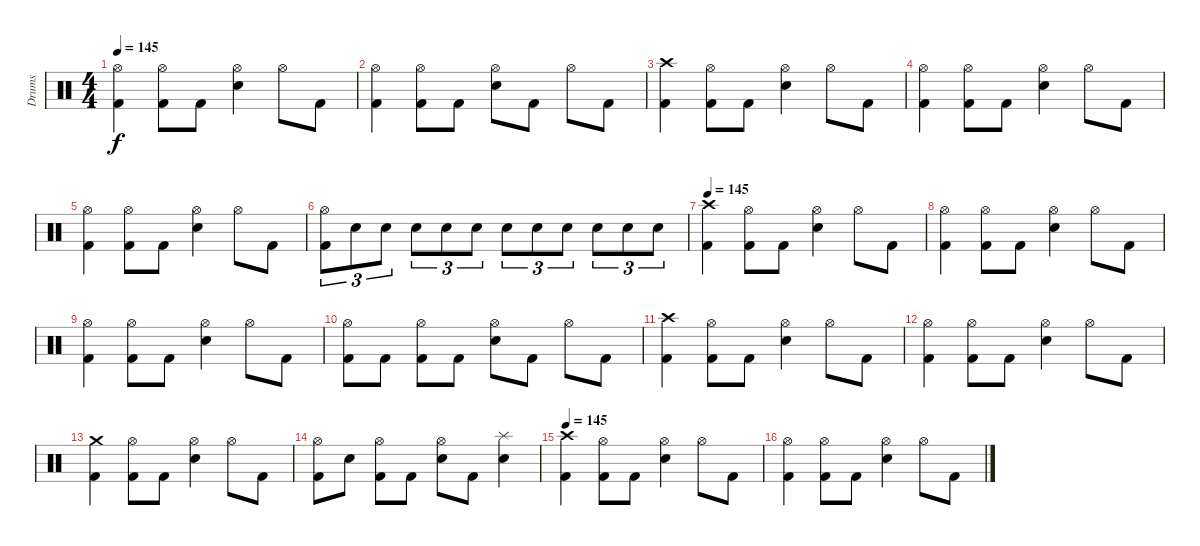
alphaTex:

\track ("Drums" "Drums") {instrument percussion}
\staff {score}
\articulation defaults
\ts (4 4)
\tempo 145
\clef neutral
\ks c
("Hi-Hat (open)" "Kick (hit) 2").4{dy f} ("Hi-Hat (open)" "Kick (hit) 2").8 "Kick (hit) 2".8 ("Hi-Hat (open)" "Electric Snare (hit)").4 "Hi-Hat (open)".8 "Kick (hit) 2".8 |
("Hi-Hat (open)" "Kick (hit) 2").4 ("Hi-Hat (open)" "Kick (hit) 2").8 "Kick (hit) 2".8 ("Hi-Hat (open)" "Electric Snare (hit)").8 "Kick (hit) 2".8 "Hi-Hat (open)".8 "Kick (hit) 2".8 |
("Crash high (hit)" "Kick (hit) 2").4 ("Hi-Hat (open)" "Kick (hit) 2").8 "Kick (hit) 2".8 ("Hi-Hat (open)" "Electric Snare (hit)").4 "Hi-Hat (open)".8 "Kick (hit) 2".8 |
("Hi-Hat (open)" "Kick (hit) 2").4 ("Hi-Hat (open)" "Kick (hit) 2").8 "Kick (hit) 2".8 ("Hi-Hat (open)" "Electric Snare (hit)").4 "Hi-Hat (open)".8 "Kick (hit) 2".8 |
("Hi-Hat (open)" "Kick (hit) 2").4 ("Hi-Hat (open)" "Kick (hit) 2").8 "Kick (hit) 2".8 ("Hi-Hat (open)" "Electric Snare (hit)").4 "Hi-Hat (open)".8 "Kick (hit) 2".8 |
("Hi-Hat (open)" "Kick (hit) 2").8{tu (3 2)} "Electric Snare (hit)".8{tu (3 2)} "Electric Snare (hit)".8{tu (3 2)} "Electric Snare (hit)".8{tu (3 2)} "Electric Snare (hit)".8{tu (3 2)} "Electric Snare (hit)".8{tu (3 2)} "Electric Snare (hit)".8{tu (3 2)} "Electric Snare (hit)".8{tu (3 2)} "Electric Snare (hit)".8{tu (3 2)} "Electric Snare (hit)".8{tu (3 2)} "Electric Snare (hit)".8{tu (3 2)} "Electric Snare (hit)".8{tu (3 2)} |
\tempo 145
("Crash high (hit)" "Kick (hit) 2").4 ("Hi-Hat (open)" "Kick (hit) 2").8 "Kick (hit) 2".8 ("Hi-Hat (open)" "Electric Snare (hit)").4 "Hi-Hat (open)".8 "Kick (hit) 2".8 |
("Hi-Hat (open)" "Kick (hit) 2").4 ("Hi-Hat (open)" "Kick (hit) 2").8 "Kick (hit) 2".8 ("Hi-Hat (open)" "Electric Snare (hit)").4 "Hi-Hat (open)".8 "Kick (hit) 2".8 |
("Hi-Hat (open)" "Kick (hit) 2").4 ("Hi-Hat (open)" "Kick (hit) 2").8 "Kick (hit) 2".8 ("Hi-Hat (open)" "Electric Snare (hit)").4 "Hi-Hat (open)".8 "Kick (hit) 2".8 |
("Hi-Hat (open)" "Kick (hit) 2").8 "Kick (hit) 2".8 ("Hi-Hat (open)" "Kick (hit) 2").8 "Kick (hit) 2".8 ("Hi-Hat (open)" "Electric Snare (hit)").8 "Kick (hit) 2".8 "Hi-Hat (open)".8 "Kick (hit) 2".8 |
("Crash high (hit)" "Kick (hit) 2").4 ("Hi-Hat (open)" "Kick (hit) 2").8 "Kick (hit) 2".8 ("Hi-Hat (open)" "Electric Snare (hit)").4 "Hi-Hat (open)".8 "Kick (hit) 2".8 |
("Hi-Hat (open)" "Kick (hit) 2").4 ("Hi-Hat (open)" "Kick (hit) 2").8 "Kick (hit) 2".8 ("Hi-Hat (open)" "Electric Snare (hit)").4 "Hi-Hat (open)".8 "Kick (hit) 2".8 |
("Crash medium (hit)" "Kick (hit) 2").4 ("Hi-Hat (open)" "Kick (hit) 2").8 "Kick (hit) 2".8 ("Hi-Hat (open)" "Electric Snare (hit)").4 "Hi-Hat (open)".8 "Kick (hit) 2".8 |
("Hi-Hat (open)" "Kick (hit) 2").8 "Electric Snare (hit)".8 ("Hi-Hat (open)" "Kick (hit) 2").8 "Kick (hit) 2".8 ("Hi-Hat (open)" "Electric Snare (hit)").8 "Kick (hit) 2".8 ("Splash (hit)" "Electric Snare (hit)").4 |
\tempo 145
("Crash high (hit)" "Kick (hit) 2").4 ("Hi-Hat (open)" "Kick (hit) 2").8 "Kick (hit) 2".8 ("Hi-Hat (open)" "Electric Snare (hit)").4 "Hi-Hat (open)".8 "Kick (hit) 2".8 |
("Hi-Hat (open)" "Kick (hit) 2").4 ("Hi-Hat (open)" "Kick (hit) 2").8 "Kick (hit) 2".8 ("Hi-Hat (open)" "Electric Snare (hit)").4 "Hi-Hat (open)".8 "Kick (hit) 2".8
